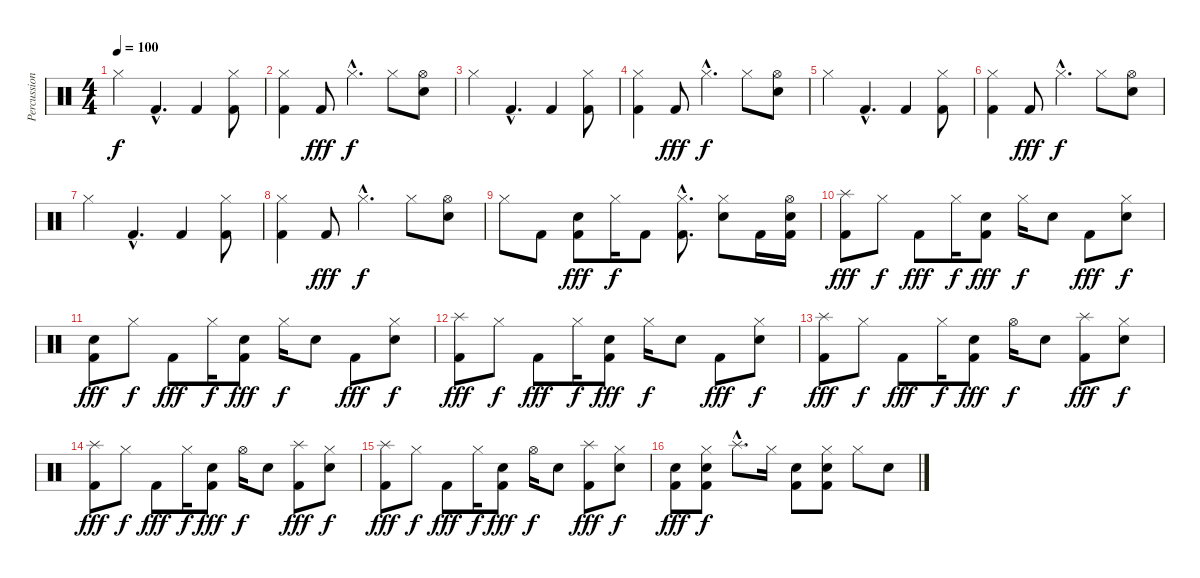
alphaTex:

\track ("Percussion" "Percussion") {instrument percussion}
\staff {score}
\articulation defaults
\ts (4 4)
\tempo 100
\clef neutral
\ks c "Hi-Hat (closed)".4{dy f} "Kick (hit) 2"{hac}.4{d} "Kick (hit) 2".4
("Hi-Hat (closed)" "Kick (hit) 2").8 |
("Hi-Hat (closed)" "Kick (hit) 2").4 "Kick (hit) 2".8{dy fff} "Hi-Hat (closed)"{hac}.4{d dy f} "Hi-Hat (closed)".8 ("Hi-Hat (open)" "Electric Snare (hit)").8 |
"Hi-Hat (closed)".4 "Kick (hit) 2"{hac}.4{d} "Kick (hit) 2".4 ("Hi-Hat (closed)" "Kick (hit) 2").8 |
("Hi-Hat (closed)" "Kick (hit) 2").4 "Kick (hit) 2".8{dy fff} "Hi-Hat (closed)"{hac}.4{d dy f} "Hi-Hat (closed)".8 ("Hi-Hat (open)" "Electric Snare (hit)").8 |
"Hi-Hat (closed)".4 "Kick (hit) 2"{hac}.4{d} "Kick (hit) 2".4 ("Hi-Hat (closed)" "Kick (hit) 2").8 |
("Hi-Hat (closed)" "Kick (hit) 2").4 "Kick (hit) 2".8{dy fff} "Hi-Hat (closed)"{hac}.4{d dy f} "Hi-Hat (closed)".8 ("Hi-Hat (open)" "Electric Snare (hit)").8 |
"Hi-Hat (closed)".4 "Kick (hit) 2"{hac}.4{d} "Kick (hit) 2".4 ("Hi-Hat (closed)" "Kick (hit) 2").8 |
("Hi-Hat (closed)" "Kick (hit) 2").4 "Kick (hit) 2".8{dy fff} "Hi-Hat (closed)"{hac}.4{d dy f} "Hi-Hat (closed)".8 ("Hi-Hat (open)" "Electric Snare (hit)").8 |
"Hi-Hat (closed)".8 "Kick (hit) 2".8 ("Electric Snare (hit)" "Kick (hit) 2").8{dy fff} "Hi-Hat (closed)".16{dy f} "Kick (hit) 2".8 ("Hi-Hat (closed)"{hac} "Kick (hit) 2"{hac}).8{d} ("Hi-Hat (closed)" "Electric Snare (hit)").8 "Kick (hit) 2".16 ("Hi-Hat (open)" "Electric Snare (hit)" "Kick (hit) 2").16 |
("Splash (hit)" "Kick (hit) 2").8{dy fff} "Hi-Hat (closed)".8{dy f} "Kick (hit) 2".8{dy fff} "Hi-Hat (closed)".16{dy f} ("Electric Snare (hit)" "Kick (hit) 2").8{dy fff} "Hi-Hat (closed)".16{dy f} "Electric Snare (hit)".8 "Kick (hit) 2".8{dy fff} ("Hi-Hat (closed)" "Electric Snare (hit)").8{dy f} |
("Electric Snare (hit)" "Kick (hit) 2").8{dy fff} "Hi-Hat (closed)".8{dy f} "Kick (hit) 2".8{dy fff} "Hi-Hat (closed)".16{dy f} ("Electric Snare (hit)" "Kick (hit) 2").8{dy fff} "Hi-Hat (closed)".16{dy f} "Electric Snare (hit)".8 "Kick (hit) 2".8{dy fff} ("Hi-Hat (closed)" "Electric Snare (hit)").8{dy f} |
("Splash (hit)" "Kick (hit) 2").8{dy fff} "Hi-Hat (closed)".8{dy f} "Kick (hit) 2".8{dy fff} "Hi-Hat (closed)".16{dy f} ("Electric Snare (hit)" "Kick (hit) 2").8{dy fff} "Hi-Hat (closed)".16{dy f} "Electric Snare (hit)".8 "Kick (hit) 2".8{dy fff} ("Hi-Hat (closed)" "Electric Snare (hit)").8{dy f} |
("Splash (hit)" "Kick (hit) 2").8{dy fff} "Hi-Hat (closed)".8{dy f} "Kick (hit) 2".8{dy fff} "Hi-Hat (closed)".16{dy f} ("Electric Snare (hit)" "Kick (hit) 2").8{dy fff} "Hi-Hat (open)".16{dy f} "Electric Snare (hit)".8 ("Splash (hit)" "Kick (hit) 2").8{dy fff} ("Hi-Hat (closed)" "Electric Snare (hit)").8{dy f} |
("Splash (hit)" "Kick (hit) 2").8{dy fff} "Hi-Hat (closed)".8{dy f} "Kick (hit) 2".8{dy fff} "Hi-Hat (closed)".16{dy f} ("Electric Snare (hit)" "Kick (hit) 2").8{dy fff} "Hi-Hat (open)".16{dy f} "Electric Snare (hit)".8 ("Splash (hit)" "Kick (hit) 2").8{dy fff} ("Hi-Hat (closed)" "Electric Snare (hit)").8{dy f} |
("Splash (hit)" "Kick (hit) 2").8{dy fff} "Hi-Hat (closed)".8{dy f} "Kick (hit) 2".8{dy fff} "Hi-Hat (closed)".16{dy f} ("Electric Snare (hit)" "Kick (hit) 2").8{dy fff} "Hi-Hat (open)".16{dy f} "Electric Snare (hit)".8 ("Splash (hit)" "Kick (hit) 2").8{dy fff} ("Hi-Hat (closed)" "Electric Snare (hit)").8{dy f} |
("Electric Snare (hit)" "Kick (hit) 2").8{dy fff} ("Hi-Hat (closed)" "Electric Snare (hit)" "Kick (hit) 2").8{dy f} "Splash (hit)"{hac}.8{d} "Hi-Hat (closed)".16 ("Electric Snare (hit)" "Kick (hit) 2").8 ("Hi-Hat (closed)" "Electric Snare (hit)" "Kick (hit) 2").8 "Hi-Hat (closed)".8 "Electric Snare (hit)".8
